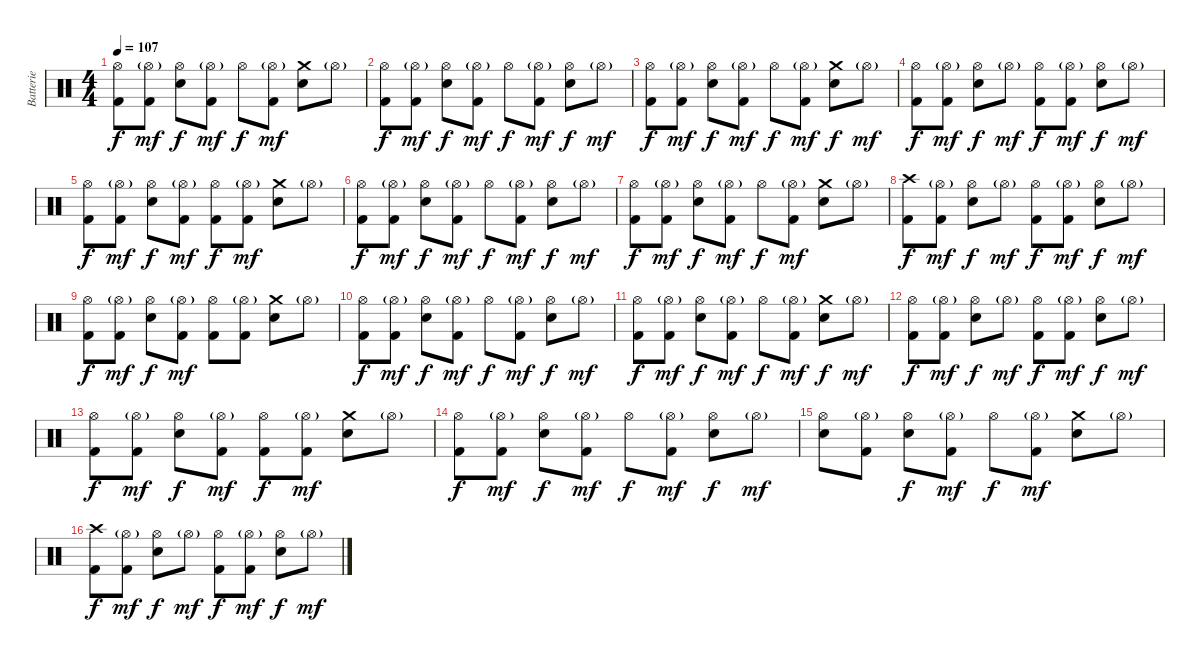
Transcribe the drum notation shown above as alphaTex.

\track ("Batterie" "Batterie") {instrument percussion}
\staff {score}
\articulation defaults
\ts (4 4)
\tempo 107
\clef neutral
\ks c
("Hi-Hat (open)" "Kick (hit) 2").8{dy f} ("Hi-Hat (open)"{g} "Kick (hit) 2").8{dy mf} ("Hi-Hat (open)" "Electric Snare (hit)").8{dy f} ("Hi-Hat (open)"{g} "Kick (hit) 2").8{dy mf} "Hi-Hat (open)".8{dy f} ("Hi-Hat (open)"{g} "Kick (hit) 2").8{dy mf} ("Crash medium (hit)" "Electric Snare (hit)").8 "Hi-Hat (open)"{g}.8 |
("Hi-Hat (open)" "Kick (hit) 2").8{dy f} ("Hi-Hat (open)"{g} "Kick (hit) 2").8{dy mf} ("Hi-Hat (open)" "Electric Snare (hit)").8{dy f} ("Hi-Hat (open)"{g} "Kick (hit) 2").8{dy mf} "Hi-Hat (open)".8{dy f} ("Hi-Hat (open)"{g} "Kick (hit) 2").8{dy mf} ("Hi-Hat (open)" "Electric Snare (hit)").8{dy f} "Hi-Hat (open)"{g}.8{dy mf} |
("Hi-Hat (open)" "Kick (hit) 2").8{dy f} ("Hi-Hat (open)"{g} "Kick (hit) 2").8{dy mf} ("Hi-Hat (open)" "Electric Snare (hit)").8{dy f} ("Hi-Hat (open)"{g} "Kick (hit) 2").8{dy mf} "Hi-Hat (open)".8{dy f} ("Hi-Hat (open)"{g} "Kick (hit) 2").8{dy mf} ("Crash medium (hit)" "Electric Snare (hit)").8{dy f} "Hi-Hat (open)"{g}.8{dy mf} |
("Hi-Hat (open)" "Kick (hit) 2").8{dy f} ("Hi-Hat (open)"{g} "Kick (hit) 2").8{dy mf} ("Hi-Hat (open)" "Electric Snare (hit)").8{dy f} "Hi-Hat (open)"{g}.8{dy mf} ("Hi-Hat (open)" "Kick (hit) 2").8{dy f} ("Hi-Hat (open)"{g} "Kick (hit) 2").8{dy mf} ("Hi-Hat (open)" "Electric Snare (hit)").8{dy f} "Hi-Hat (open)"{g}.8{dy mf} |
("Hi-Hat (open)" "Kick (hit) 2").8{dy f} ("Hi-Hat (open)"{g} "Kick (hit) 2").8{dy mf} ("Hi-Hat (open)" "Electric Snare (hit)").8{dy f} ("Hi-Hat (open)"{g} "Kick (hit) 2").8{dy mf} ("Hi-Hat (open)" "Kick (hit) 2").8{dy f} ("Hi-Hat (open)"{g} "Kick (hit) 2").8{dy mf} ("Crash medium (hit)" "Electric Snare (hit)").8 "Hi-Hat (open)"{g}.8 |
("Hi-Hat (open)" "Kick (hit) 2").8{dy f} ("Hi-Hat (open)"{g} "Kick (hit) 2").8{dy mf} ("Hi-Hat (open)" "Electric Snare (hit)").8{dy f} ("Hi-Hat (open)"{g} "Kick (hit) 2").8{dy mf} "Hi-Hat (open)".8{dy f} ("Hi-Hat (open)"{g} "Kick (hit) 2").8{dy mf} ("Hi-Hat (open)" "Electric Snare (hit)").8{dy f} "Hi-Hat (open)"{g}.8{dy mf} |
("Hi-Hat (open)" "Kick (hit) 2").8{dy f} ("Hi-Hat (open)"{g} "Kick (hit) 2").8{dy mf} ("Hi-Hat (open)" "Electric Snare (hit)").8{dy f} ("Hi-Hat (open)"{g} "Kick (hit) 2").8{dy mf} "Hi-Hat (open)".8{dy f} ("Hi-Hat (open)"{g} "Kick (hit) 2").8{dy mf} ("Crash medium (hit)" "Electric Snare (hit)").8 "Hi-Hat (open)"{g}.8 |
("Crash high (hit)" "Kick (hit) 2").8{dy f} ("Hi-Hat (open)"{g} "Kick (hit) 2").8{dy mf} ("Hi-Hat (open)" "Electric Snare (hit)").8{dy f} "Hi-Hat (open)"{g}.8{dy mf} ("Hi-Hat (open)" "Kick (hit) 2").8{dy f} ("Hi-Hat (open)"{g} "Kick (hit) 2").8{dy mf} ("Hi-Hat (open)" "Electric Snare (hit)").8{dy f} "Hi-Hat (open)"{g}.8{dy mf} |
("Hi-Hat (open)" "Kick (hit) 2").8{dy f} ("Hi-Hat (open)"{g} "Kick (hit) 2").8{dy mf} ("Hi-Hat (open)" "Electric Snare (hit)").8{dy f} ("Hi-Hat (open)"{g} "Kick (hit) 2").8{dy mf} ("Hi-Hat (open)" "Kick (hit) 2").8 ("Hi-Hat (open)"{g} "Kick (hit) 2").8 ("Crash medium (hit)" "Electric Snare (hit)").8 "Hi-Hat (open)"{g}.8 |
("Hi-Hat (open)" "Kick (hit) 2").8{dy f} ("Hi-Hat (open)"{g} "Kick (hit) 2").8{dy mf} ("Hi-Hat (open)" "Electric Snare (hit)").8{dy f} ("Hi-Hat (open)"{g} "Kick (hit) 2").8{dy mf} "Hi-Hat (open)".8{dy f} ("Hi-Hat (open)"{g} "Kick (hit) 2").8{dy mf} ("Hi-Hat (open)" "Electric Snare (hit)").8{dy f} "Hi-Hat (open)"{g}.8{dy mf} |
("Hi-Hat (open)" "Kick (hit) 2").8{dy f} ("Hi-Hat (open)"{g} "Kick (hit) 2").8{dy mf} ("Hi-Hat (open)" "Electric Snare (hit)").8{dy f} ("Hi-Hat (open)"{g} "Kick (hit) 2").8{dy mf} "Hi-Hat (open)".8{dy f} ("Hi-Hat (open)"{g} "Kick (hit) 2").8{dy mf} ("Crash medium (hit)" "Electric Snare (hit)").8{dy f} "Hi-Hat (open)"{g}.8{dy mf} |
("Hi-Hat (open)" "Kick (hit) 2").8{dy f} ("Hi-Hat (open)"{g} "Kick (hit) 2").8{dy mf} ("Hi-Hat (open)" "Electric Snare (hit)").8{dy f} "Hi-Hat (open)"{g}.8{dy mf} ("Hi-Hat (open)" "Kick (hit) 2").8{dy f} ("Hi-Hat (open)"{g} "Kick (hit) 2").8{dy mf} ("Hi-Hat (open)" "Electric Snare (hit)").8{dy f} "Hi-Hat (open)"{g}.8{dy mf} |
("Hi-Hat (open)" "Kick (hit) 2").8{dy f} ("Hi-Hat (open)"{g} "Kick (hit) 2").8{dy mf} ("Hi-Hat (open)" "Electric Snare (hit)").8{dy f} ("Hi-Hat (open)"{g} "Kick (hit) 2").8{dy mf} ("Hi-Hat (open)" "Kick (hit) 2").8{dy f} ("Hi-Hat (open)"{g} "Kick (hit) 2").8{dy mf} ("Crash medium (hit)" "Electric Snare (hit)").8 "Hi-Hat (open)"{g}.8 |
("Hi-Hat (open)" "Kick (hit) 2").8{dy f} ("Hi-Hat (open)"{g} "Kick (hit) 2").8{dy mf} ("Hi-Hat (open)" "Electric Snare (hit)").8{dy f} ("Hi-Hat (open)"{g} "Kick (hit) 2").8{dy mf} "Hi-Hat (open)".8{dy f} ("Hi-Hat (open)"{g} "Kick (hit) 2").8{dy mf} ("Hi-Hat (open)" "Electric Snare (hit)").8{dy f} "Hi-Hat (open)"{g}.8{dy mf} |
("Hi-Hat (open)" "Electric Snare (hit)").8 ("Hi-Hat (open)"{g} "Kick (hit) 2").8 ("Hi-Hat (open)" "Electric Snare (hit)").8{dy f} ("Hi-Hat (open)"{g} "Kick (hit) 2").8{dy mf} "Hi-Hat (open)".8{dy f} ("Hi-Hat (open)"{g} "Kick (hit) 2").8{dy mf} ("Crash medium (hit)" "Electric Snare (hit)").8 "Hi-Hat (open)"{g}.8 |
("Crash high (hit)" "Kick (hit) 2").8{dy f} ("Hi-Hat (open)"{g} "Kick (hit) 2").8{dy mf} ("Hi-Hat (open)" "Electric Snare (hit)").8{dy f} "Hi-Hat (open)"{g}.8{dy mf} ("Hi-Hat (open)" "Kick (hit) 2").8{dy f} ("Hi-Hat (open)"{g} "Kick (hit) 2").8{dy mf} ("Hi-Hat (open)" "Electric Snare (hit)").8{dy f} "Hi-Hat (open)"{g}.8{dy mf}
